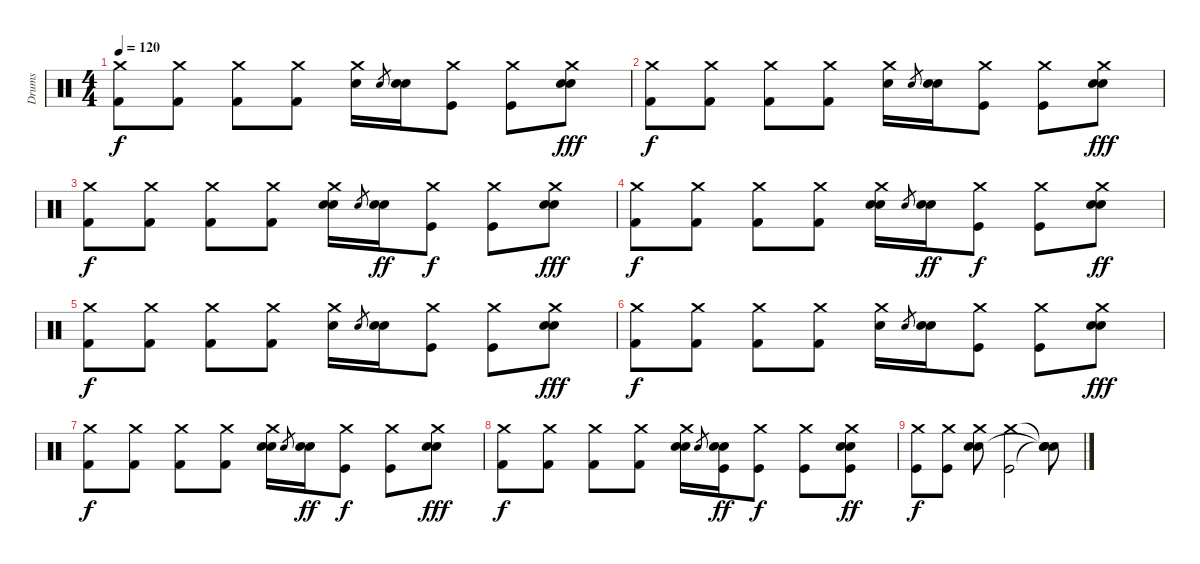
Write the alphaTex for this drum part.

\track ("Drums" "Drums") {instrument percussion}
\staff {score}
\articulation defaults
\ts (4 4)
\tempo 120
\clef neutral
\ks c
("Crash medium (hit)" "Kick (hit) 2").8{dy f} ("Crash medium (hit)" "Kick (hit) 2").8 ("Crash medium (hit)" "Kick (hit) 2").8 ("Crash medium (hit)" "Kick (hit) 2").8 ("Crash medium (hit)" "Electric Snare (hit)").16 "Electric Snare (hit)".8{gr} ("Electric Snare (hit)" "Snare (hit) 2").16 ("Crash medium (hit)" "Kick (hit)").8 ("Crash medium (hit)" "Kick (hit)").8 ("Crash medium (hit)" "Electric Snare (hit)" "Snare (hit) 2").8{dy fff} |
("Crash medium (hit)" "Kick (hit) 2").8{dy f} ("Crash medium (hit)" "Kick (hit) 2").8 ("Crash medium (hit)" "Kick (hit) 2").8 ("Crash medium (hit)" "Kick (hit) 2").8 ("Crash medium (hit)" "Electric Snare (hit)").16 "Electric Snare (hit)".8{gr} ("Electric Snare (hit)" "Snare (hit) 2").16 ("Crash medium (hit)" "Kick (hit)").8 ("Crash medium (hit)" "Kick (hit)").8 ("Crash medium (hit)" "Electric Snare (hit)" "Snare (hit) 2").8{dy fff} |
("Crash medium (hit)" "Kick (hit) 2").8{dy f} ("Crash medium (hit)" "Kick (hit) 2").8 ("Crash medium (hit)" "Kick (hit) 2").8 ("Crash medium (hit)" "Kick (hit) 2").8 ("Crash medium (hit)" "Electric Snare (hit)" "Snare (hit) 2").16 "Electric Snare (hit)".8{gr} ("Electric Snare (hit)" "Snare (hit) 2").16{dy ff} ("Crash medium (hit)" "Kick (hit)").8{dy f} ("Crash medium (hit)" "Kick (hit)").8 ("Crash medium (hit)" "Electric Snare (hit)" "Snare (hit) 2").8{dy fff} |
("Crash medium (hit)" "Kick (hit) 2").8{dy f} ("Crash medium (hit)" "Kick (hit) 2").8 ("Crash medium (hit)" "Kick (hit) 2").8 ("Crash medium (hit)" "Kick (hit) 2").8 ("Crash medium (hit)" "Electric Snare (hit)" "Snare (hit) 2").16 "Electric Snare (hit)".8{gr} ("Electric Snare (hit)" "Snare (hit) 2").16{dy ff} ("Crash medium (hit)" "Kick (hit)").8{dy f} ("Crash medium (hit)" "Kick (hit)").8 ("Crash medium (hit)" "Electric Snare (hit)" "Snare (hit) 2").8{dy ff} |
("Crash medium (hit)" "Kick (hit) 2").8{dy f} ("Crash medium (hit)" "Kick (hit) 2").8 ("Crash medium (hit)" "Kick (hit) 2").8 ("Crash medium (hit)" "Kick (hit) 2").8 ("Crash medium (hit)" "Electric Snare (hit)").16 "Electric Snare (hit)".8{gr} ("Electric Snare (hit)" "Snare (hit) 2").16 ("Crash medium (hit)" "Kick (hit)").8 ("Crash medium (hit)" "Kick (hit)").8 ("Crash medium (hit)" "Electric Snare (hit)" "Snare (hit) 2").8{dy fff} |
("Crash medium (hit)" "Kick (hit) 2").8{dy f} ("Crash medium (hit)" "Kick (hit) 2").8 ("Crash medium (hit)" "Kick (hit) 2").8 ("Crash medium (hit)" "Kick (hit) 2").8 ("Crash medium (hit)" "Electric Snare (hit)").16 "Electric Snare (hit)".8{gr} ("Electric Snare (hit)" "Snare (hit) 2").16 ("Crash medium (hit)" "Kick (hit)").8 ("Crash medium (hit)" "Kick (hit)").8 ("Crash medium (hit)" "Electric Snare (hit)" "Snare (hit) 2").8{dy fff} |
("Crash medium (hit)" "Kick (hit) 2").8{dy f} ("Crash medium (hit)" "Kick (hit) 2").8 ("Crash medium (hit)" "Kick (hit) 2").8 ("Crash medium (hit)" "Kick (hit) 2").8 ("Crash medium (hit)" "Electric Snare (hit)" "Snare (hit) 2").16 "Electric Snare (hit)".8{gr} ("Electric Snare (hit)" "Snare (hit) 2").16{dy ff} ("Crash medium (hit)" "Kick (hit)").8{dy f} ("Crash medium (hit)" "Kick (hit)").8 ("Crash medium (hit)" "Electric Snare (hit)" "Snare (hit) 2").8{dy fff} |
("Crash medium (hit)" "Kick (hit) 2").8{dy f} ("Crash medium (hit)" "Kick (hit) 2").8 ("Crash medium (hit)" "Kick (hit) 2").8 ("Crash medium (hit)" "Kick (hit) 2").8 ("Crash medium (hit)" "Electric Snare (hit)" "Snare (hit) 2").16 "Electric Snare (hit)".8{gr} ("Electric Snare (hit)" "Snare (hit) 2" "Kick (hit)").16{dy ff} ("Crash medium (hit)" "Kick (hit)").8{dy f} ("Crash medium (hit)" "Kick (hit)").8 ("Crash medium (hit)" "Electric Snare (hit)" "Snare (hit) 2" "Kick (hit)").8{dy ff} |
("Crash medium (hit)" "Kick (hit)").8{dy f} ("Crash medium (hit)" "Kick (hit)").8 ("Crash medium (hit)" "Electric Snare (hit)" "Snare (hit) 2").8 ("Crash medium (hit)" "Kick (hit)").2 ("Snare (hit)"{t} "Snare (hit)"{t} "Snare (hit)"{t}).8
